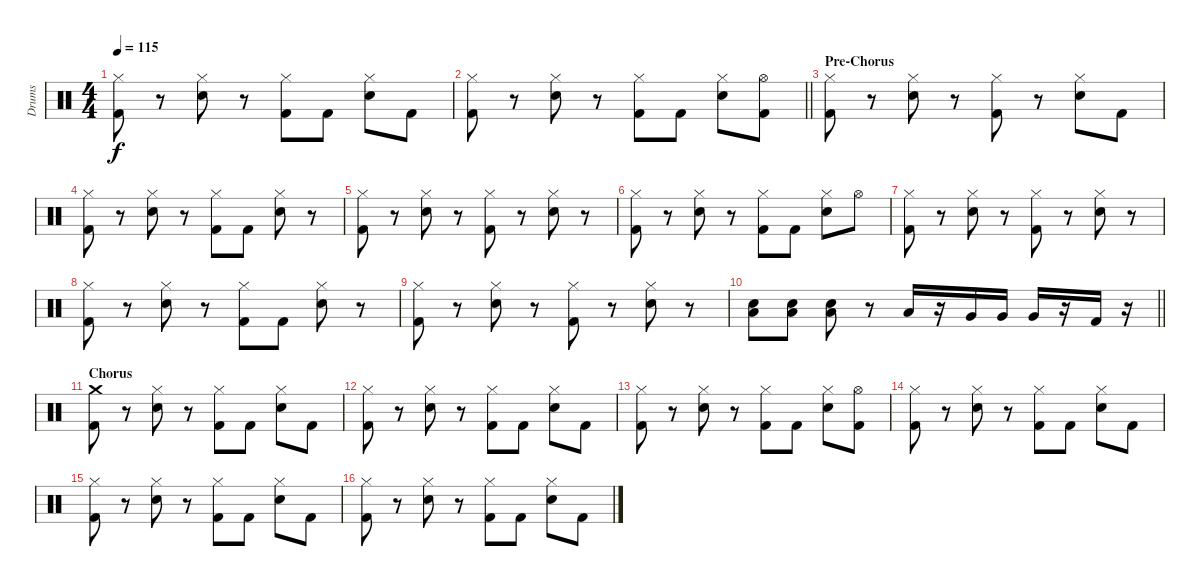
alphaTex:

\track ("Drums" "Drums") {instrument percussion}
\staff {score}
\articulation defaults
\ts (4 4)
\tempo 115
\clef neutral
\ks c
("Hi-Hat (closed)" "Kick (hit) 2").8{dy f} r.8 ("Hi-Hat (closed)" "Snare (hit) 2").8 r.8 ("Hi-Hat (closed)" "Kick (hit) 2").8 "Kick (hit) 2".8 ("Hi-Hat (closed)" "Snare (hit) 2").8 "Kick (hit) 2".8 |
\barLineRight lightlight
("Hi-Hat (closed)" "Kick (hit) 2").8 r.8 ("Hi-Hat (closed)" "Snare (hit) 2").8 r.8 ("Hi-Hat (closed)" "Kick (hit) 2").8 "Kick (hit) 2".8 ("Hi-Hat (closed)" "Snare (hit) 2").8 ("Hi-Hat (open)" "Kick (hit) 2").8 |
\section ("" "Pre-Chorus")
("Hi-Hat (closed)" "Kick (hit) 2").8 r.8 ("Hi-Hat (closed)" "Snare (hit) 2").8 r.8 ("Hi-Hat (closed)" "Kick (hit) 2").8 r.8 ("Hi-Hat (closed)" "Snare (hit) 2").8 "Kick (hit) 2".8 |
("Hi-Hat (closed)" "Kick (hit) 2").8 r.8 ("Hi-Hat (closed)" "Snare (hit) 2").8 r.8 ("Hi-Hat (closed)" "Kick (hit) 2").8 "Kick (hit) 2".8 ("Hi-Hat (closed)" "Snare (hit) 2").8 r.8 |
("Hi-Hat (closed)" "Kick (hit) 2").8 r.8 ("Hi-Hat (closed)" "Snare (hit) 2").8 r.8 ("Hi-Hat (closed)" "Kick (hit) 2").8 r.8 ("Hi-Hat (closed)" "Snare (hit) 2").8 r.8 |
("Hi-Hat (closed)" "Kick (hit) 2").8 r.8 ("Hi-Hat (closed)" "Snare (hit) 2").8 r.8 ("Hi-Hat (closed)" "Kick (hit) 2").8 "Kick (hit) 2".8 ("Hi-Hat (closed)" "Snare (hit) 2").8 "Hi-Hat (open)".8 |
("Hi-Hat (closed)" "Kick (hit) 2").8 r.8 ("Hi-Hat (closed)" "Snare (hit) 2").8 r.8 ("Hi-Hat (closed)" "Kick (hit) 2").8 r.8 ("Hi-Hat (closed)" "Snare (hit) 2").8 r.8 |
("Hi-Hat (closed)" "Kick (hit) 2").8 r.8 ("Hi-Hat (closed)" "Snare (hit) 2").8 r.8 ("Hi-Hat (closed)" "Kick (hit) 2").8 "Kick (hit) 2".8 ("Hi-Hat (closed)" "Snare (hit) 2").8 r.8 |
("Hi-Hat (closed)" "Kick (hit) 2").8 r.8 ("Hi-Hat (closed)" "Snare (hit) 2").8 r.8 ("Hi-Hat (closed)" "Kick (hit) 2").8 r.8 ("Hi-Hat (closed)" "Snare (hit) 2").8 r.8 |
\barLineRight lightlight
("Snare (hit) 2" "Low Floor Tom (hit)").8 ("Snare (hit) 2" "Low Floor Tom (hit)").8 ("Snare (hit) 2" "Low Floor Tom (hit)").8 r.8 "Low Tom (hit)".16 r.16 "Very Low Tom (hit)".16 "Very Low Tom (hit)".16 "Very Low Tom (hit)".16 r.16 "Kick (hit) 2".16 r.16 |
\section ("" "Chorus")
("Crash medium (hit)" "Kick (hit) 2").8 r.8 ("Hi-Hat (closed)" "Snare (hit) 2").8 r.8 ("Hi-Hat (closed)" "Kick (hit) 2").8 "Kick (hit) 2".8 ("Hi-Hat (closed)" "Snare (hit) 2").8 "Kick (hit) 2".8 |
("Hi-Hat (closed)" "Kick (hit) 2").8 r.8 ("Hi-Hat (closed)" "Snare (hit) 2").8 r.8 ("Hi-Hat (closed)" "Kick (hit) 2").8 "Kick (hit) 2".8 ("Hi-Hat (closed)" "Snare (hit) 2").8 "Kick (hit) 2".8 |
("Hi-Hat (closed)" "Kick (hit) 2").8 r.8 ("Hi-Hat (closed)" "Snare (hit) 2").8 r.8 ("Hi-Hat (closed)" "Kick (hit) 2").8 "Kick (hit) 2".8 ("Hi-Hat (closed)" "Snare (hit) 2").8 ("Hi-Hat (open)" "Kick (hit) 2").8 |
("Hi-Hat (closed)" "Kick (hit) 2").8 r.8 ("Hi-Hat (closed)" "Snare (hit) 2").8 r.8 ("Hi-Hat (closed)" "Kick (hit) 2").8 "Kick (hit) 2".8 ("Hi-Hat (closed)" "Snare (hit) 2").8 "Kick (hit) 2".8 |
("Hi-Hat (closed)" "Kick (hit) 2").8 r.8 ("Hi-Hat (closed)" "Snare (hit) 2").8 r.8 ("Hi-Hat (closed)" "Kick (hit) 2").8 "Kick (hit) 2".8 ("Hi-Hat (closed)" "Snare (hit) 2").8 "Kick (hit) 2".8 |
("Hi-Hat (closed)" "Kick (hit) 2").8 r.8 ("Hi-Hat (closed)" "Snare (hit) 2").8 r.8 ("Hi-Hat (closed)" "Kick (hit) 2").8 "Kick (hit) 2".8 ("Hi-Hat (closed)" "Snare (hit) 2").8 "Kick (hit) 2".8
